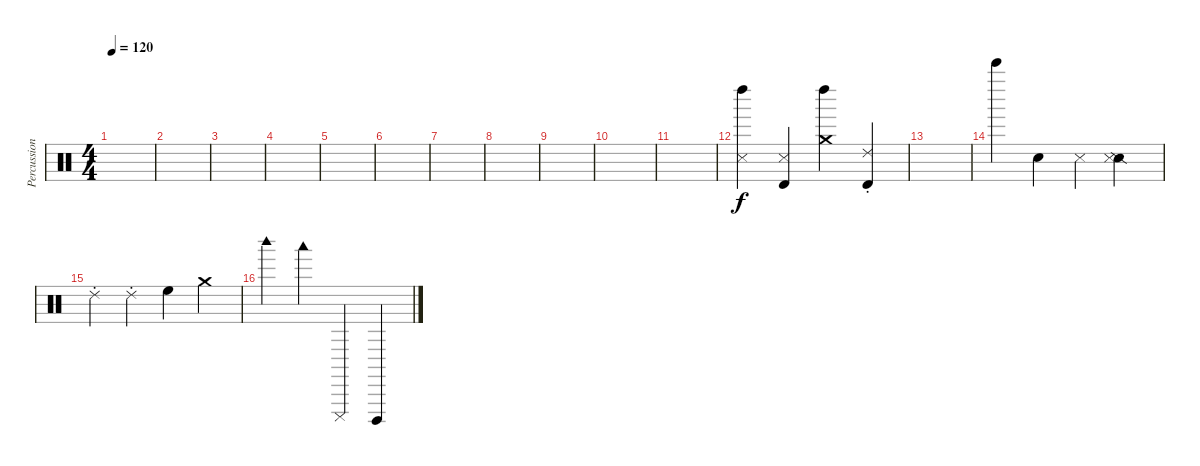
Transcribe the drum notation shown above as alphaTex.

\track ("Percussion" "Percussion") {instrument percussion}
\staff {score}
\articulation defaults
\ts (4 4)
\tempo 120
\clef neutral
\ks c
|
|
|
|
|
|
|
|
|
|
|
("Snare (side stick) 3" "Left Maraca (hit)").4 ("Snare (side stick) 3" "Timbale high (hit)").4 ("Crash medium (hit)" "Left Maraca (hit)").4 ("Ride (choke) 2" "Timbale high (hit)").4 |
|
"Bell Tree (hit)".4 "Hand Clap (hit)".4 "Snare (side stick) 3".4 ("Snare (side stick) 2" "Metronome (hit)").4 |
"Ride (choke) 2".4 "Ride (choke) 2".4 "High Floor Tom (hit)".4 "Crash medium (hit)".4 |
"Woodblock high (hit)".4 "Woodblock low (hit)".4 "Cuica (mute)".4 "Cuica (open)".4
